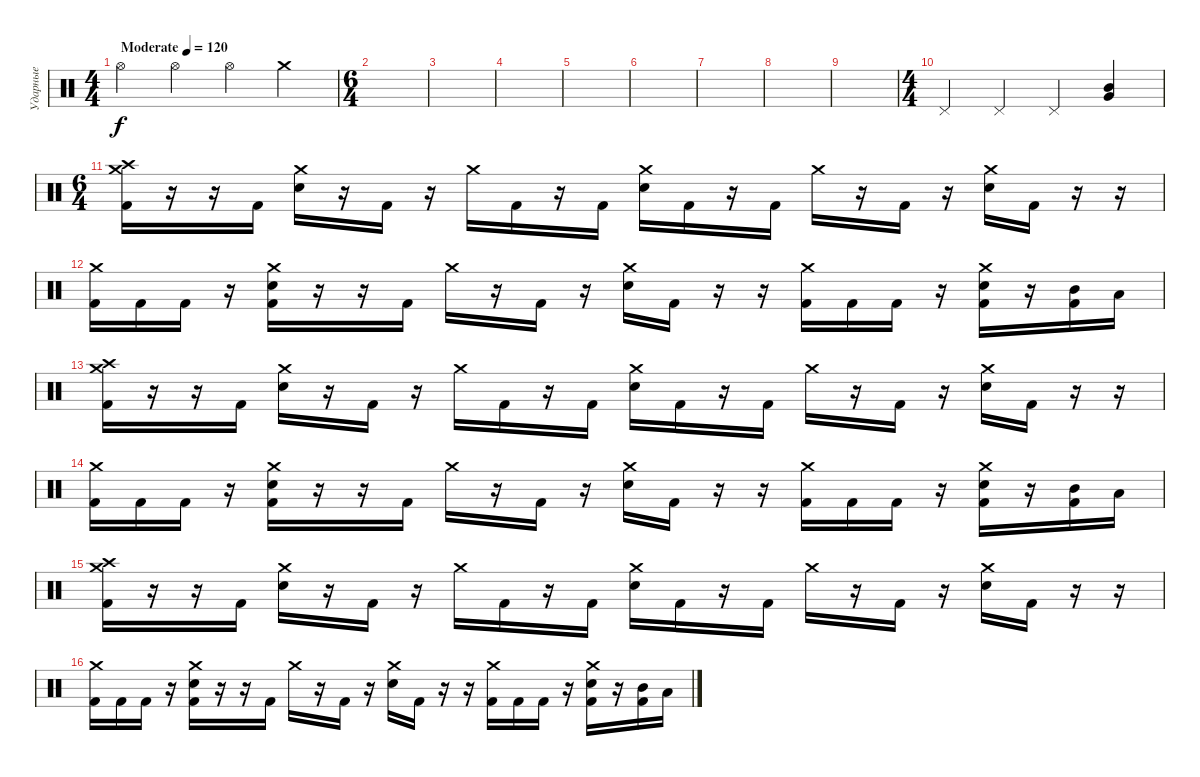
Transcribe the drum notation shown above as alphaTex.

\track ("Ударные" "Ударные") {instrument percussion}
\staff {score}
\articulation defaults
\ts (4 4)
\tempo (120 "Moderate")
\clef neutral
\ks c "Hi-Hat (open)".4{dy f} "Hi-Hat (open)".4 "Hi-Hat (open)".4 "Crash medium (hit)".4
|
\ts (6 4)
|
|
|
|
|
|
|
|
\ts (4 4)
"Pedal Hi-Hat (hit)".4 "Pedal Hi-Hat (hit)".4 "Pedal Hi-Hat (hit)".4 ("Mid Tom (hit)" "Very Low Tom (hit)").4 |
\ts (6 4)
("Crash medium (hit)" "Crash high (hit)" "Kick (hit) 2").16 r.16 r.16 "Kick (hit) 2".16 ("Crash medium (hit)" "Electric Snare (hit)").16 r.16 "Kick (hit) 2".16 r.16 "Crash medium (hit)".16 "Kick (hit) 2".16 r.16 "Kick (hit) 2".16 ("Crash medium (hit)" "Electric Snare (hit)").16 "Kick (hit) 2".16 r.16 "Kick (hit) 2".16 "Crash medium (hit)".16 r.16 "Kick (hit) 2".16 r.16 ("Crash medium (hit)" "Electric Snare (hit)").16 "Kick (hit) 2".16 r.16 r.16 |
("Crash medium (hit)" "Kick (hit) 2").16 "Kick (hit) 2".16 "Kick (hit) 2".16 r.16 ("Crash medium (hit)" "Electric Snare (hit)" "Kick (hit) 2").16 r.16 r.16 "Kick (hit) 2".16 "Crash medium (hit)".16 r.16 "Kick (hit) 2".16 r.16 ("Crash medium (hit)" "Electric Snare (hit)").16 "Kick (hit) 2".16 r.16 r.16 ("Crash medium (hit)" "Kick (hit) 2").16 "Kick (hit) 2".16 "Kick (hit) 2".16 r.16 ("Crash medium (hit)" "Electric Snare (hit)" "Kick (hit) 2").16 r.16 ("Mid Tom (hit)" "Kick (hit) 2").16 "Low Tom (hit)".16 |
("Crash medium (hit)" "Crash high (hit)" "Kick (hit) 2").16 r.16 r.16 "Kick (hit) 2".16 ("Crash medium (hit)" "Electric Snare (hit)").16 r.16 "Kick (hit) 2".16 r.16 "Crash medium (hit)".16 "Kick (hit) 2".16 r.16 "Kick (hit) 2".16 ("Crash medium (hit)" "Electric Snare (hit)").16 "Kick (hit) 2".16 r.16 "Kick (hit) 2".16 "Crash medium (hit)".16 r.16 "Kick (hit) 2".16 r.16 ("Crash medium (hit)" "Electric Snare (hit)").16 "Kick (hit) 2".16 r.16 r.16 |
("Crash medium (hit)" "Kick (hit) 2").16 "Kick (hit) 2".16 "Kick (hit) 2".16 r.16 ("Crash medium (hit)" "Electric Snare (hit)" "Kick (hit) 2").16 r.16 r.16 "Kick (hit) 2".16 "Crash medium (hit)".16 r.16 "Kick (hit) 2".16 r.16 ("Crash medium (hit)" "Electric Snare (hit)").16 "Kick (hit) 2".16 r.16 r.16 ("Crash medium (hit)" "Kick (hit) 2").16 "Kick (hit) 2".16 "Kick (hit) 2".16 r.16 ("Crash medium (hit)" "Electric Snare (hit)" "Kick (hit) 2").16 r.16 ("Mid Tom (hit)" "Kick (hit) 2").16 "Low Tom (hit)".16 |
("Crash medium (hit)" "Crash high (hit)" "Kick (hit) 2").16 r.16 r.16 "Kick (hit) 2".16 ("Crash medium (hit)" "Electric Snare (hit)").16 r.16 "Kick (hit) 2".16 r.16 "Crash medium (hit)".16 "Kick (hit) 2".16 r.16 "Kick (hit) 2".16 ("Crash medium (hit)" "Electric Snare (hit)").16 "Kick (hit) 2".16 r.16 "Kick (hit) 2".16 "Crash medium (hit)".16 r.16 "Kick (hit) 2".16 r.16 ("Crash medium (hit)" "Electric Snare (hit)").16 "Kick (hit) 2".16 r.16 r.16 |
("Crash medium (hit)" "Kick (hit) 2").16 "Kick (hit) 2".16 "Kick (hit) 2".16 r.16 ("Crash medium (hit)" "Electric Snare (hit)" "Kick (hit) 2").16 r.16 r.16 "Kick (hit) 2".16 "Crash medium (hit)".16 r.16 "Kick (hit) 2".16 r.16 ("Crash medium (hit)" "Electric Snare (hit)").16 "Kick (hit) 2".16 r.16 r.16 ("Crash medium (hit)" "Kick (hit) 2").16 "Kick (hit) 2".16 "Kick (hit) 2".16 r.16 ("Crash medium (hit)" "Electric Snare (hit)" "Kick (hit) 2").16 r.16 ("Mid Tom (hit)" "Kick (hit) 2").16 "Low Tom (hit)".16
